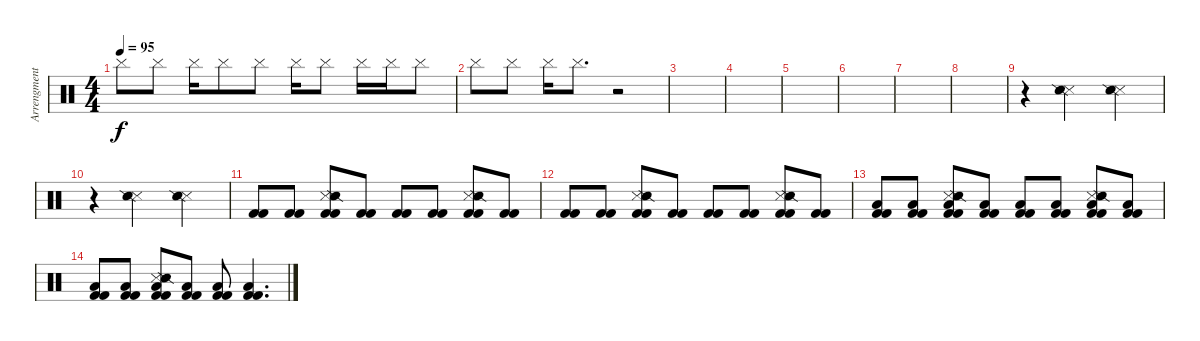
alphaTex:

\track ("Arrengments" "Arrengment") {instrument percussion}
\staff {score}
\articulation defaults
\ts (4 4)
\tempo 95
\clef neutral
\ks c "Cymbal (hit)".8{dy f} "Cymbal (hit)".8 "Cymbal (hit)".16 "Cymbal (hit)".8 "Cymbal (hit)".8 "Cymbal (hit)".16 "Cymbal (hit)".8 "Cymbal (hit)".16 "Cymbal (hit)".16 "Cymbal (hit)".8
|
"Cymbal (hit)".8 "Cymbal (hit)".8 "Cymbal (hit)".16 "Cymbal (hit)".8{d} r.2 |
|
|
|
|
|
|
r.4 ("Snare (side stick) 3" "Snare (side stick) 2").2 ("Snare (side stick) 3" "Snare (side stick) 2").4 |
r.4 ("Snare (side stick) 3" "Snare (side stick) 2").2 ("Snare (side stick) 3" "Snare (side stick) 2").4 |
("Kick (hit) 2" "Kick (hit) 2").8 ("Kick (hit) 2" "Kick (hit) 2").8 ("Snare (side stick) 3" "Snare (side stick) 2" "Kick (hit) 2" "Kick (hit) 2").8 ("Kick (hit) 2" "Kick (hit) 2").8 ("Kick (hit) 2" "Kick (hit) 2").8 ("Kick (hit) 2" "Kick (hit) 2").8 ("Snare (side stick) 3" "Snare (side stick) 2" "Kick (hit) 2" "Kick (hit) 2").8 ("Kick (hit) 2" "Kick (hit) 2").8 |
("Kick (hit) 2" "Kick (hit) 2").8 ("Kick (hit) 2" "Kick (hit) 2").8 ("Snare (side stick) 3" "Snare (side stick) 2" "Kick (hit) 2" "Kick (hit) 2").8 ("Kick (hit) 2" "Kick (hit) 2").8 ("Kick (hit) 2" "Kick (hit) 2").8 ("Kick (hit) 2" "Kick (hit) 2").8 ("Snare (side stick) 3" "Snare (side stick) 2" "Kick (hit) 2" "Kick (hit) 2").8 ("Kick (hit) 2" "Kick (hit) 2").8 |
("Low Tom (hit)" "Kick (hit) 2" "Kick (hit) 2").8 ("Low Tom (hit)" "Kick (hit) 2" "Kick (hit) 2").8 ("Low Tom (hit)" "Snare (side stick) 3" "Snare (side stick) 2" "Kick (hit) 2" "Kick (hit) 2").8 ("Low Tom (hit)" "Kick (hit) 2" "Kick (hit) 2").8 ("Low Tom (hit)" "Kick (hit) 2" "Kick (hit) 2").8 ("Low Tom (hit)" "Kick (hit) 2" "Kick (hit) 2").8 ("Low Tom (hit)" "Snare (side stick) 3" "Snare (side stick) 2" "Kick (hit) 2" "Kick (hit) 2").8 ("Low Tom (hit)" "Kick (hit) 2" "Kick (hit) 2").8 |
("Low Tom (hit)" "Kick (hit) 2" "Kick (hit) 2").8 ("Low Tom (hit)" "Kick (hit) 2" "Kick (hit) 2").8 ("Low Tom (hit)" "Snare (side stick) 3" "Snare (side stick) 2" "Kick (hit) 2" "Kick (hit) 2").8 ("Low Tom (hit)" "Kick (hit) 2" "Kick (hit) 2").8 ("Low Tom (hit)" "Kick (hit) 2" "Kick (hit) 2").8 ("Low Tom (hit)" "Kick (hit) 2" "Kick (hit) 2").4{d}
